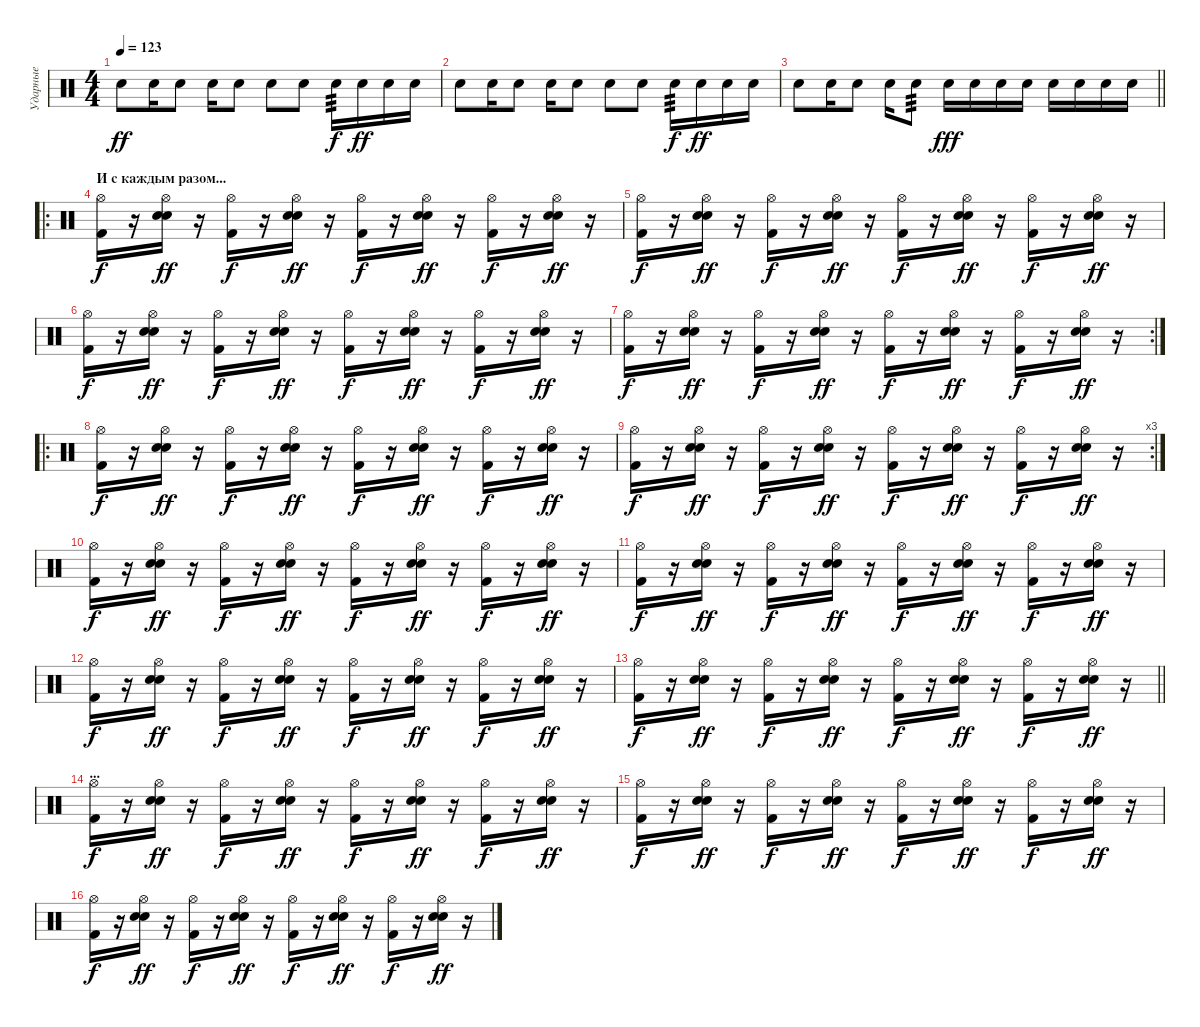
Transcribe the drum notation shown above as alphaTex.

\track ("Ударные" "Ударные") {instrument percussion}
\staff {score}
\articulation defaults
\ts (4 4)
\tempo 123
\clef neutral
\ks c "Snare (hit) 2".8{dy ff} "Snare (hit) 2".16 "Snare (hit) 2".8 "Snare (hit) 2".16 "Snare (hit) 2".8 "Snare (hit) 2".8 "Snare (hit) 2".8 "Snare (hit) 2".16{tp 3 dy f} "Snare (hit) 2".16{dy ff} "Snare (hit) 2".16 "Snare (hit) 2".16
|
"Snare (hit) 2".8 "Snare (hit) 2".16 "Snare (hit) 2".8 "Snare (hit) 2".16 "Snare (hit) 2".8 "Snare (hit) 2".8 "Snare (hit) 2".8 "Snare (hit) 2".16{tp 3 dy f} "Snare (hit) 2".16{dy ff} "Snare (hit) 2".16 "Snare (hit) 2".16 |
\barLineRight lightlight "Snare (hit) 2".8 "Snare (hit) 2".16 "Snare (hit) 2".8 "Snare (hit) 2".16 "Snare (hit) 2".8{tp 3} "Snare (hit) 2".16{dy fff} "Snare (hit) 2".16 "Snare (hit) 2".16 "Snare (hit) 2".16 "Snare (hit) 2".16 "Snare (hit) 2".16 "Snare (hit) 2".16 "Snare (hit) 2".16
|
\ro
\section ("" "И с каждым разом...")
("Hi-Hat (open)" "Kick (hit) 2").16{dy f} r.16 ("Hi-Hat (open)" "Electric Snare (hit)" "Snare (hit) 2").16{dy ff} r.16 ("Hi-Hat (open)" "Kick (hit) 2").16{dy f} r.16 ("Hi-Hat (open)" "Electric Snare (hit)" "Snare (hit) 2").16{dy ff} r.16 ("Hi-Hat (open)" "Kick (hit) 2").16{dy f} r.16 ("Hi-Hat (open)" "Electric Snare (hit)" "Snare (hit) 2").16{dy ff} r.16 ("Hi-Hat (open)" "Kick (hit) 2").16{dy f} r.16 ("Hi-Hat (open)" "Electric Snare (hit)" "Snare (hit) 2").16{dy ff} r.16 |
("Hi-Hat (open)" "Kick (hit) 2").16{dy f} r.16 ("Hi-Hat (open)" "Electric Snare (hit)" "Snare (hit) 2").16{dy ff} r.16 ("Hi-Hat (open)" "Kick (hit) 2").16{dy f} r.16 ("Hi-Hat (open)" "Electric Snare (hit)" "Snare (hit) 2").16{dy ff} r.16 ("Hi-Hat (open)" "Kick (hit) 2").16{dy f} r.16 ("Hi-Hat (open)" "Electric Snare (hit)" "Snare (hit) 2").16{dy ff} r.16 ("Hi-Hat (open)" "Kick (hit) 2").16{dy f} r.16 ("Hi-Hat (open)" "Electric Snare (hit)" "Snare (hit) 2").16{dy ff} r.16 |
("Hi-Hat (open)" "Kick (hit) 2").16{dy f} r.16 ("Hi-Hat (open)" "Electric Snare (hit)" "Snare (hit) 2").16{dy ff} r.16 ("Hi-Hat (open)" "Kick (hit) 2").16{dy f} r.16 ("Hi-Hat (open)" "Electric Snare (hit)" "Snare (hit) 2").16{dy ff} r.16 ("Hi-Hat (open)" "Kick (hit) 2").16{dy f} r.16 ("Hi-Hat (open)" "Electric Snare (hit)" "Snare (hit) 2").16{dy ff} r.16 ("Hi-Hat (open)" "Kick (hit) 2").16{dy f} r.16 ("Hi-Hat (open)" "Electric Snare (hit)" "Snare (hit) 2").16{dy ff} r.16 |
\rc 2
("Hi-Hat (open)" "Kick (hit) 2").16{dy f} r.16 ("Hi-Hat (open)" "Electric Snare (hit)" "Snare (hit) 2").16{dy ff} r.16 ("Hi-Hat (open)" "Kick (hit) 2").16{dy f} r.16 ("Hi-Hat (open)" "Electric Snare (hit)" "Snare (hit) 2").16{dy ff} r.16 ("Hi-Hat (open)" "Kick (hit) 2").16{dy f} r.16 ("Hi-Hat (open)" "Electric Snare (hit)" "Snare (hit) 2").16{dy ff} r.16 ("Hi-Hat (open)" "Kick (hit) 2").16{dy f} r.16 ("Hi-Hat (open)" "Electric Snare (hit)" "Snare (hit) 2").16{dy ff} r.16 |
\ro
("Hi-Hat (open)" "Kick (hit) 2").16{dy f} r.16 ("Hi-Hat (open)" "Electric Snare (hit)" "Snare (hit) 2").16{dy ff} r.16 ("Hi-Hat (open)" "Kick (hit) 2").16{dy f} r.16 ("Hi-Hat (open)" "Electric Snare (hit)" "Snare (hit) 2").16{dy ff} r.16 ("Hi-Hat (open)" "Kick (hit) 2").16{dy f} r.16 ("Hi-Hat (open)" "Electric Snare (hit)" "Snare (hit) 2").16{dy ff} r.16 ("Hi-Hat (open)" "Kick (hit) 2").16{dy f} r.16 ("Hi-Hat (open)" "Electric Snare (hit)" "Snare (hit) 2").16{dy ff} r.16 |
\rc 3
("Hi-Hat (open)" "Kick (hit) 2").16{dy f} r.16 ("Hi-Hat (open)" "Electric Snare (hit)" "Snare (hit) 2").16{dy ff} r.16 ("Hi-Hat (open)" "Kick (hit) 2").16{dy f} r.16 ("Hi-Hat (open)" "Electric Snare (hit)" "Snare (hit) 2").16{dy ff} r.16 ("Hi-Hat (open)" "Kick (hit) 2").16{dy f} r.16 ("Hi-Hat (open)" "Electric Snare (hit)" "Snare (hit) 2").16{dy ff} r.16 ("Hi-Hat (open)" "Kick (hit) 2").16{dy f} r.16 ("Hi-Hat (open)" "Electric Snare (hit)" "Snare (hit) 2").16{dy ff} r.16 |
("Hi-Hat (open)" "Kick (hit) 2").16{dy f} r.16 ("Hi-Hat (open)" "Electric Snare (hit)" "Snare (hit) 2").16{dy ff} r.16 ("Hi-Hat (open)" "Kick (hit) 2").16{dy f} r.16 ("Hi-Hat (open)" "Electric Snare (hit)" "Snare (hit) 2").16{dy ff} r.16 ("Hi-Hat (open)" "Kick (hit) 2").16{dy f} r.16 ("Hi-Hat (open)" "Electric Snare (hit)" "Snare (hit) 2").16{dy ff} r.16 ("Hi-Hat (open)" "Kick (hit) 2").16{dy f} r.16 ("Hi-Hat (open)" "Electric Snare (hit)" "Snare (hit) 2").16{dy ff} r.16 |
("Hi-Hat (open)" "Kick (hit) 2").16{dy f} r.16 ("Hi-Hat (open)" "Electric Snare (hit)" "Snare (hit) 2").16{dy ff} r.16 ("Hi-Hat (open)" "Kick (hit) 2").16{dy f} r.16 ("Hi-Hat (open)" "Electric Snare (hit)" "Snare (hit) 2").16{dy ff} r.16 ("Hi-Hat (open)" "Kick (hit) 2").16{dy f} r.16 ("Hi-Hat (open)" "Electric Snare (hit)" "Snare (hit) 2").16{dy ff} r.16 ("Hi-Hat (open)" "Kick (hit) 2").16{dy f} r.16 ("Hi-Hat (open)" "Electric Snare (hit)" "Snare (hit) 2").16{dy ff} r.16 |
("Hi-Hat (open)" "Kick (hit) 2").16{dy f} r.16 ("Hi-Hat (open)" "Electric Snare (hit)" "Snare (hit) 2").16{dy ff} r.16 ("Hi-Hat (open)" "Kick (hit) 2").16{dy f} r.16 ("Hi-Hat (open)" "Electric Snare (hit)" "Snare (hit) 2").16{dy ff} r.16 ("Hi-Hat (open)" "Kick (hit) 2").16{dy f} r.16 ("Hi-Hat (open)" "Electric Snare (hit)" "Snare (hit) 2").16{dy ff} r.16 ("Hi-Hat (open)" "Kick (hit) 2").16{dy f} r.16 ("Hi-Hat (open)" "Electric Snare (hit)" "Snare (hit) 2").16{dy ff} r.16 |
\barLineRight lightlight
("Hi-Hat (open)" "Kick (hit) 2").16{dy f} r.16 ("Hi-Hat (open)" "Electric Snare (hit)" "Snare (hit) 2").16{dy ff} r.16 ("Hi-Hat (open)" "Kick (hit) 2").16{dy f} r.16 ("Hi-Hat (open)" "Electric Snare (hit)" "Snare (hit) 2").16{dy ff} r.16 ("Hi-Hat (open)" "Kick (hit) 2").16{dy f} r.16 ("Hi-Hat (open)" "Electric Snare (hit)" "Snare (hit) 2").16{dy ff} r.16 ("Hi-Hat (open)" "Kick (hit) 2").16{dy f} r.16 ("Hi-Hat (open)" "Electric Snare (hit)" "Snare (hit) 2").16{dy ff} r.16 |
\section ("" "...")
("Hi-Hat (open)" "Kick (hit) 2").16{dy f} r.16 ("Hi-Hat (open)" "Electric Snare (hit)" "Snare (hit) 2").16{dy ff} r.16 ("Hi-Hat (open)" "Kick (hit) 2").16{dy f} r.16 ("Hi-Hat (open)" "Electric Snare (hit)" "Snare (hit) 2").16{dy ff} r.16 ("Hi-Hat (open)" "Kick (hit) 2").16{dy f} r.16 ("Hi-Hat (open)" "Electric Snare (hit)" "Snare (hit) 2").16{dy ff} r.16 ("Hi-Hat (open)" "Kick (hit) 2").16{dy f} r.16 ("Hi-Hat (open)" "Electric Snare (hit)" "Snare (hit) 2").16{dy ff} r.16 |
("Hi-Hat (open)" "Kick (hit) 2").16{dy f} r.16 ("Hi-Hat (open)" "Electric Snare (hit)" "Snare (hit) 2").16{dy ff} r.16 ("Hi-Hat (open)" "Kick (hit) 2").16{dy f} r.16 ("Hi-Hat (open)" "Electric Snare (hit)" "Snare (hit) 2").16{dy ff} r.16 ("Hi-Hat (open)" "Kick (hit) 2").16{dy f} r.16 ("Hi-Hat (open)" "Electric Snare (hit)" "Snare (hit) 2").16{dy ff} r.16 ("Hi-Hat (open)" "Kick (hit) 2").16{dy f} r.16 ("Hi-Hat (open)" "Electric Snare (hit)" "Snare (hit) 2").16{dy ff} r.16 |
("Hi-Hat (open)" "Kick (hit) 2").16{dy f} r.16 ("Hi-Hat (open)" "Electric Snare (hit)" "Snare (hit) 2").16{dy ff} r.16 ("Hi-Hat (open)" "Kick (hit) 2").16{dy f} r.16 ("Hi-Hat (open)" "Electric Snare (hit)" "Snare (hit) 2").16{dy ff} r.16 ("Hi-Hat (open)" "Kick (hit) 2").16{dy f} r.16 ("Hi-Hat (open)" "Electric Snare (hit)" "Snare (hit) 2").16{dy ff} r.16 ("Hi-Hat (open)" "Kick (hit) 2").16{dy f} r.16 ("Hi-Hat (open)" "Electric Snare (hit)" "Snare (hit) 2").16{dy ff} r.16
